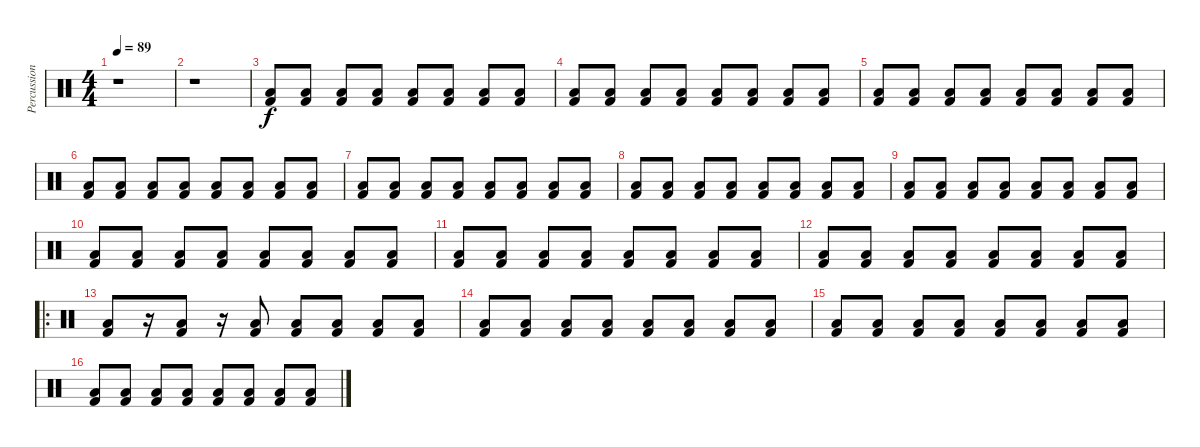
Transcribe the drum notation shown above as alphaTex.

\track ("Percussion" "Percussion") {instrument percussion}
\staff {score}
\articulation defaults
\ts (4 4)
\tempo 89
\clef neutral
\ks c
r.1{dy f} |
r.1 |
("Kick (hit) 2" "Low Floor Tom (hit)").8 ("Kick (hit) 2" "Low Floor Tom (hit)").8 ("Kick (hit) 2" "Low Floor Tom (hit)").8 ("Kick (hit) 2" "Low Floor Tom (hit)").8 ("Kick (hit) 2" "Low Floor Tom (hit)").8 ("Kick (hit) 2" "Low Floor Tom (hit)").8 ("Kick (hit) 2" "Low Floor Tom (hit)").8 ("Kick (hit) 2" "Low Floor Tom (hit)").8 |
("Kick (hit) 2" "Low Floor Tom (hit)").8 ("Kick (hit) 2" "Low Floor Tom (hit)").8 ("Kick (hit) 2" "Low Floor Tom (hit)").8 ("Kick (hit) 2" "Low Floor Tom (hit)").8 ("Kick (hit) 2" "Low Floor Tom (hit)").8 ("Kick (hit) 2" "Low Floor Tom (hit)").8 ("Kick (hit) 2" "Low Floor Tom (hit)").8 ("Kick (hit) 2" "Low Floor Tom (hit)").8 |
("Kick (hit) 2" "Low Floor Tom (hit)").8 ("Kick (hit) 2" "Low Floor Tom (hit)").8 ("Kick (hit) 2" "Low Floor Tom (hit)").8 ("Kick (hit) 2" "Low Floor Tom (hit)").8 ("Kick (hit) 2" "Low Floor Tom (hit)").8 ("Kick (hit) 2" "Low Floor Tom (hit)").8 ("Kick (hit) 2" "Low Floor Tom (hit)").8 ("Kick (hit) 2" "Low Floor Tom (hit)").8 |
("Kick (hit) 2" "Low Floor Tom (hit)").8 ("Kick (hit) 2" "Low Floor Tom (hit)").8 ("Kick (hit) 2" "Low Floor Tom (hit)").8 ("Kick (hit) 2" "Low Floor Tom (hit)").8 ("Kick (hit) 2" "Low Floor Tom (hit)").8 ("Kick (hit) 2" "Low Floor Tom (hit)").8 ("Kick (hit) 2" "Low Floor Tom (hit)").8 ("Kick (hit) 2" "Low Floor Tom (hit)").8 |
("Kick (hit) 2" "Low Floor Tom (hit)").8 ("Kick (hit) 2" "Low Floor Tom (hit)").8 ("Kick (hit) 2" "Low Floor Tom (hit)").8 ("Kick (hit) 2" "Low Floor Tom (hit)").8 ("Kick (hit) 2" "Low Floor Tom (hit)").8 ("Kick (hit) 2" "Low Floor Tom (hit)").8 ("Kick (hit) 2" "Low Floor Tom (hit)").8 ("Kick (hit) 2" "Low Floor Tom (hit)").8 |
("Kick (hit) 2" "Low Floor Tom (hit)").8 ("Kick (hit) 2" "Low Floor Tom (hit)").8 ("Kick (hit) 2" "Low Floor Tom (hit)").8 ("Kick (hit) 2" "Low Floor Tom (hit)").8 ("Kick (hit) 2" "Low Floor Tom (hit)").8 ("Kick (hit) 2" "Low Floor Tom (hit)").8 ("Kick (hit) 2" "Low Floor Tom (hit)").8 ("Kick (hit) 2" "Low Floor Tom (hit)").8 |
("Kick (hit) 2" "Low Floor Tom (hit)").8 ("Kick (hit) 2" "Low Floor Tom (hit)").8 ("Kick (hit) 2" "Low Floor Tom (hit)").8 ("Kick (hit) 2" "Low Floor Tom (hit)").8 ("Kick (hit) 2" "Low Floor Tom (hit)").8 ("Kick (hit) 2" "Low Floor Tom (hit)").8 ("Kick (hit) 2" "Low Floor Tom (hit)").8 ("Kick (hit) 2" "Low Floor Tom (hit)").8 |
("Kick (hit) 2" "Low Floor Tom (hit)").8 ("Kick (hit) 2" "Low Floor Tom (hit)").8 ("Kick (hit) 2" "Low Floor Tom (hit)").8 ("Kick (hit) 2" "Low Floor Tom (hit)").8 ("Kick (hit) 2" "Low Floor Tom (hit)").8 ("Kick (hit) 2" "Low Floor Tom (hit)").8 ("Kick (hit) 2" "Low Floor Tom (hit)").8 ("Kick (hit) 2" "Low Floor Tom (hit)").8 |
("Kick (hit) 2" "Low Floor Tom (hit)").8 ("Kick (hit) 2" "Low Floor Tom (hit)").8 ("Kick (hit) 2" "Low Floor Tom (hit)").8 ("Kick (hit) 2" "Low Floor Tom (hit)").8 ("Kick (hit) 2" "Low Floor Tom (hit)").8 ("Kick (hit) 2" "Low Floor Tom (hit)").8 ("Kick (hit) 2" "Low Floor Tom (hit)").8 ("Kick (hit) 2" "Low Floor Tom (hit)").8 |
("Kick (hit) 2" "Low Floor Tom (hit)").8 ("Kick (hit) 2" "Low Floor Tom (hit)").8 ("Kick (hit) 2" "Low Floor Tom (hit)").8 ("Kick (hit) 2" "Low Floor Tom (hit)").8 ("Kick (hit) 2" "Low Floor Tom (hit)").8 ("Kick (hit) 2" "Low Floor Tom (hit)").8 ("Kick (hit) 2" "Low Floor Tom (hit)").8 ("Kick (hit) 2" "Low Floor Tom (hit)").8 |
\ro
("Kick (hit) 2" "Low Floor Tom (hit)").8 r.16 ("Kick (hit) 2" "Low Floor Tom (hit)").8 r.16 ("Kick (hit) 2" "Low Floor Tom (hit)").8 ("Kick (hit) 2" "Low Floor Tom (hit)").8 ("Kick (hit) 2" "Low Floor Tom (hit)").8 ("Kick (hit) 2" "Low Floor Tom (hit)").8 ("Kick (hit) 2" "Low Floor Tom (hit)").8 |
("Kick (hit) 2" "Low Floor Tom (hit)").8 ("Kick (hit) 2" "Low Floor Tom (hit)").8 ("Kick (hit) 2" "Low Floor Tom (hit)").8 ("Kick (hit) 2" "Low Floor Tom (hit)").8 ("Kick (hit) 2" "Low Floor Tom (hit)").8 ("Kick (hit) 2" "Low Floor Tom (hit)").8 ("Kick (hit) 2" "Low Floor Tom (hit)").8 ("Kick (hit) 2" "Low Floor Tom (hit)").8 |
("Kick (hit) 2" "Low Floor Tom (hit)").8 ("Kick (hit) 2" "Low Floor Tom (hit)").8 ("Kick (hit) 2" "Low Floor Tom (hit)").8 ("Kick (hit) 2" "Low Floor Tom (hit)").8 ("Kick (hit) 2" "Low Floor Tom (hit)").8 ("Kick (hit) 2" "Low Floor Tom (hit)").8 ("Kick (hit) 2" "Low Floor Tom (hit)").8 ("Kick (hit) 2" "Low Floor Tom (hit)").8 |
("Kick (hit) 2" "Low Floor Tom (hit)").8 ("Kick (hit) 2" "Low Floor Tom (hit)").8 ("Kick (hit) 2" "Low Floor Tom (hit)").8 ("Kick (hit) 2" "Low Floor Tom (hit)").8 ("Kick (hit) 2" "Low Floor Tom (hit)").8 ("Kick (hit) 2" "Low Floor Tom (hit)").8 ("Kick (hit) 2" "Low Floor Tom (hit)").8 ("Kick (hit) 2" "Low Floor Tom (hit)").8
